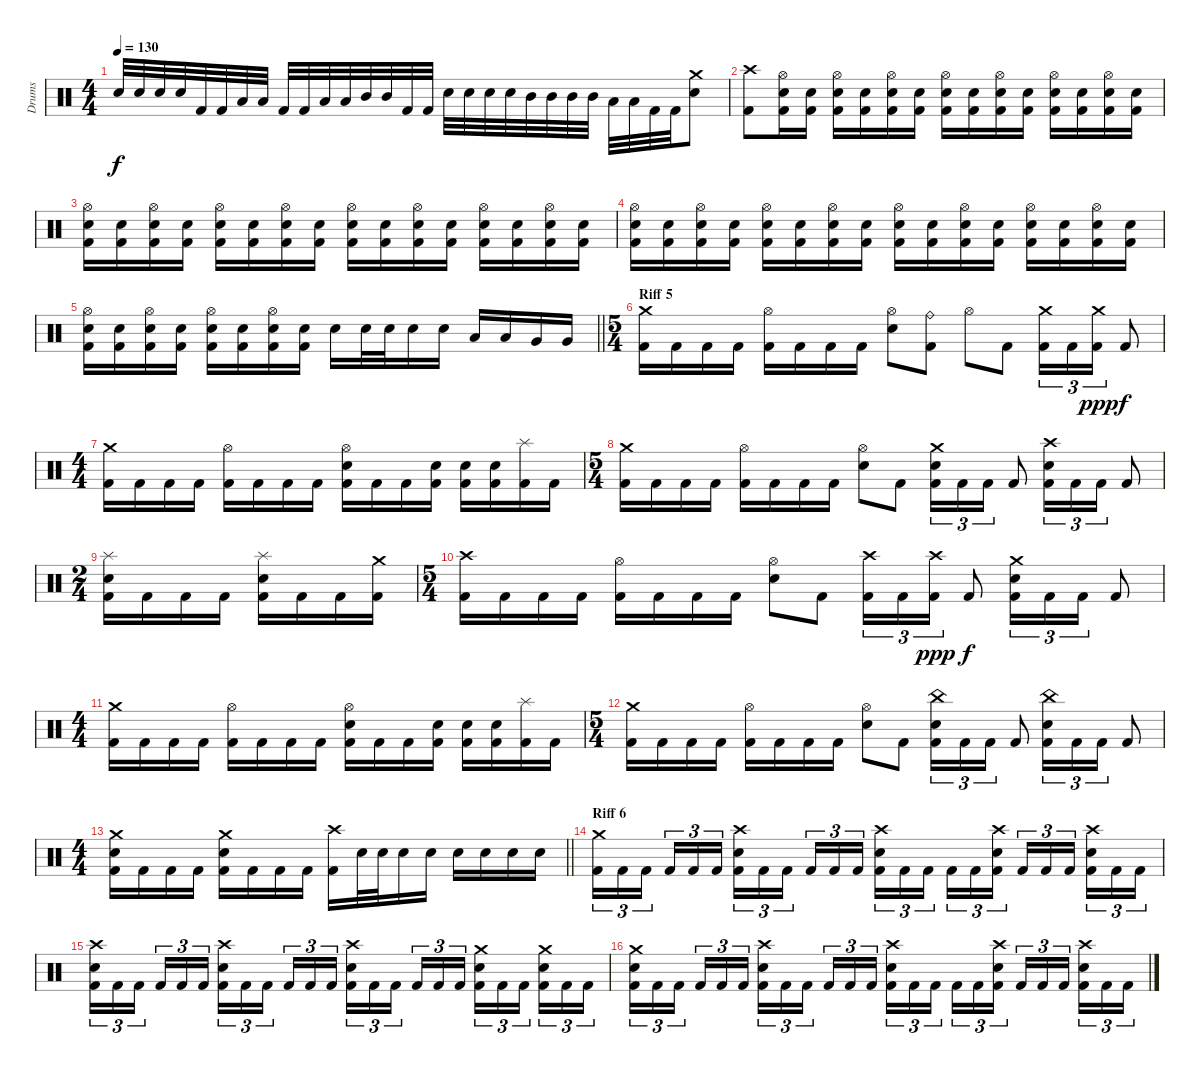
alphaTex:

\track ("Drums" "Drums") {instrument percussion}
\staff {score}
\articulation defaults
\ts (4 4)
\tempo 130
\clef neutral
\ks c "Electric Snare (hit)".32{dy f} "Electric Snare (hit)".32 "Electric Snare (hit)".32 "Electric Snare (hit)".32 "Kick (hit) 2".32 "Kick (hit) 2".32 "Low Tom (hit)".32 "Low Tom (hit)".32 "Kick (hit) 2".32 "Kick (hit) 2".32 "Low Tom (hit)".32 "Low Tom (hit)".32 "Mid Tom (hit)".32 "Mid Tom (hit)".32 "Kick (hit) 2".32 "Kick (hit) 2".32 "Electric Snare (hit)".32 "Electric Snare (hit)".32 "Electric Snare (hit)".32 "Electric Snare (hit)".32 "Mid Tom (hit)".32 "Mid Tom (hit)".32 "Mid Tom (hit)".32 "Mid Tom (hit)".32 "Low Tom (hit)".32 "Low Tom (hit)".32 "Kick (hit) 2".32 "Kick (hit) 2".32
("Electric Snare (hit)" "Crash medium (hit)").8 |
("Kick (hit) 2" "Crash high (hit)").8 ("Kick (hit) 2" "Electric Snare (hit)" "Hi-Hat (open)").16 ("Kick (hit) 2" "Electric Snare (hit)").16 ("Kick (hit) 2" "Electric Snare (hit)" "Hi-Hat (open)").16 ("Kick (hit) 2" "Electric Snare (hit)").16 ("Kick (hit) 2" "Electric Snare (hit)" "Hi-Hat (open)").16 ("Kick (hit) 2" "Electric Snare (hit)").16 ("Kick (hit) 2" "Electric Snare (hit)" "Hi-Hat (open)").16 ("Kick (hit) 2" "Electric Snare (hit)").16 ("Kick (hit) 2" "Electric Snare (hit)" "Hi-Hat (open)").16 ("Kick (hit) 2" "Electric Snare (hit)").16 ("Kick (hit) 2" "Electric Snare (hit)" "Hi-Hat (open)").16 ("Kick (hit) 2" "Electric Snare (hit)").16 ("Kick (hit) 2" "Electric Snare (hit)" "Hi-Hat (open)").16 ("Kick (hit) 2" "Electric Snare (hit)").16 |
("Kick (hit) 2" "Electric Snare (hit)" "Hi-Hat (open)").16 ("Kick (hit) 2" "Electric Snare (hit)").16 ("Kick (hit) 2" "Electric Snare (hit)" "Hi-Hat (open)").16 ("Kick (hit) 2" "Electric Snare (hit)").16 ("Kick (hit) 2" "Electric Snare (hit)" "Hi-Hat (open)").16 ("Kick (hit) 2" "Electric Snare (hit)").16 ("Kick (hit) 2" "Electric Snare (hit)" "Hi-Hat (open)").16 ("Kick (hit) 2" "Electric Snare (hit)").16 ("Kick (hit) 2" "Electric Snare (hit)" "Hi-Hat (open)").16 ("Kick (hit) 2" "Electric Snare (hit)").16 ("Kick (hit) 2" "Electric Snare (hit)" "Hi-Hat (open)").16 ("Kick (hit) 2" "Electric Snare (hit)").16 ("Kick (hit) 2" "Electric Snare (hit)" "Hi-Hat (open)").16 ("Kick (hit) 2" "Electric Snare (hit)").16 ("Kick (hit) 2" "Electric Snare (hit)" "Hi-Hat (open)").16 ("Kick (hit) 2" "Electric Snare (hit)").16 |
("Kick (hit) 2" "Electric Snare (hit)" "Hi-Hat (open)").16 ("Kick (hit) 2" "Electric Snare (hit)").16 ("Kick (hit) 2" "Electric Snare (hit)" "Hi-Hat (open)").16 ("Kick (hit) 2" "Electric Snare (hit)").16 ("Kick (hit) 2" "Electric Snare (hit)" "Hi-Hat (open)").16 ("Kick (hit) 2" "Electric Snare (hit)").16 ("Kick (hit) 2" "Electric Snare (hit)" "Hi-Hat (open)").16 ("Kick (hit) 2" "Electric Snare (hit)").16 ("Kick (hit) 2" "Electric Snare (hit)" "Hi-Hat (open)").16 ("Kick (hit) 2" "Electric Snare (hit)").16 ("Kick (hit) 2" "Electric Snare (hit)" "Hi-Hat (open)").16 ("Kick (hit) 2" "Electric Snare (hit)").16 ("Kick (hit) 2" "Electric Snare (hit)" "Hi-Hat (open)").16 ("Kick (hit) 2" "Electric Snare (hit)").16 ("Kick (hit) 2" "Electric Snare (hit)" "Hi-Hat (open)").16 ("Kick (hit) 2" "Electric Snare (hit)").16 |
\barLineRight lightlight
("Kick (hit) 2" "Electric Snare (hit)" "Hi-Hat (open)").16 ("Kick (hit) 2" "Electric Snare (hit)").16 ("Kick (hit) 2" "Electric Snare (hit)" "Hi-Hat (open)").16 ("Kick (hit) 2" "Electric Snare (hit)").16 ("Kick (hit) 2" "Electric Snare (hit)" "Hi-Hat (open)").16 ("Kick (hit) 2" "Electric Snare (hit)").16 ("Kick (hit) 2" "Electric Snare (hit)" "Hi-Hat (open)").16 ("Kick (hit) 2" "Electric Snare (hit)").16 "Electric Snare (hit)".16 "Electric Snare (hit)".32 "Electric Snare (hit)".32 "Electric Snare (hit)".16 "Electric Snare (hit)".16 "Low Tom (hit)".16 "Low Tom (hit)".16 "Very Low Tom (hit)".16 "Very Low Tom (hit)".16 |
\ts (5 4)
\section ("" "Riff 5")
("Crash medium (hit)" "Kick (hit) 2").16 "Kick (hit) 2".16 "Kick (hit) 2".16 "Kick (hit) 2".16 ("Hi-Hat (open)" "Kick (hit) 2").16 "Kick (hit) 2".16 "Kick (hit) 2".16 "Kick (hit) 2".16 ("Electric Snare (hit)" "Hi-Hat (open)").8 ("Ride (bell)" "Kick (hit) 2").8 "Hi-Hat (open)".8 "Kick (hit) 2".8 ("Kick (hit) 2" "Crash medium (hit)").16{tu (3 2)} "Kick (hit) 2".16{tu (3 2)} ("Kick (hit) 2" "Crash medium (hit)").16{tu (3 2) dy ppp} "Kick (hit) 2".8{dy f} |
\ts (4 4)
("Kick (hit) 2" "Crash medium (hit)").16 "Kick (hit) 2".16 "Kick (hit) 2".16 "Kick (hit) 2".16 ("Kick (hit) 2" "Hi-Hat (open)").16 "Kick (hit) 2".16 "Kick (hit) 2".16 "Kick (hit) 2".16 ("Kick (hit) 2" "Hi-Hat (open)" "Electric Snare (hit)").16 "Kick (hit) 2".16 "Kick (hit) 2".16 ("Kick (hit) 2" "Electric Snare (hit)").16 ("Kick (hit) 2" "Electric Snare (hit)").16 ("Kick (hit) 2" "Electric Snare (hit)").16 ("Kick (hit) 2" "Splash (hit)").16 "Kick (hit) 2".16 |
\ts (5 4)
("Crash medium (hit)" "Kick (hit) 2").16 "Kick (hit) 2".16 "Kick (hit) 2".16 "Kick (hit) 2".16 ("Hi-Hat (open)" "Kick (hit) 2").16 "Kick (hit) 2".16 "Kick (hit) 2".16 "Kick (hit) 2".16 ("Electric Snare (hit)" "Hi-Hat (open)").8 "Kick (hit) 2".8 ("Kick (hit) 2" "Crash medium (hit)" "Electric Snare (hit)").16{tu (3 2)} "Kick (hit) 2".16{tu (3 2)} "Kick (hit) 2".16{tu (3 2)} "Kick (hit) 2".8 ("Kick (hit) 2" "Crash high (hit)" "Electric Snare (hit)").16{tu (3 2)} "Kick (hit) 2".16{tu (3 2)} "Kick (hit) 2".16{tu (3 2)} "Kick (hit) 2".8 |
\ts (2 4)
("Electric Snare (hit)" "Kick (hit) 2" "Splash (hit)").16 "Kick (hit) 2".16 "Kick (hit) 2".16 "Kick (hit) 2".16 ("Electric Snare (hit)" "Kick (hit) 2" "Splash (hit)").16 "Kick (hit) 2".16 "Kick (hit) 2".16 ("Crash medium (hit)" "Kick (hit) 2").16 |
\ts (5 4)
("Crash high (hit)" "Kick (hit) 2").16 "Kick (hit) 2".16 "Kick (hit) 2".16 "Kick (hit) 2".16 ("Hi-Hat (open)" "Kick (hit) 2").16 "Kick (hit) 2".16 "Kick (hit) 2".16 "Kick (hit) 2".16 ("Electric Snare (hit)" "Hi-Hat (open)").8 "Kick (hit) 2".8 ("Kick (hit) 2" "Crash high (hit)").16{tu (3 2)} "Kick (hit) 2".16{tu (3 2)} ("Kick (hit) 2" "Crash high (hit)").16{tu (3 2) dy ppp} "Kick (hit) 2".8{dy f} ("Kick (hit) 2" "Crash medium (hit)" "Electric Snare (hit)").16{tu (3 2)} "Kick (hit) 2".16{tu (3 2)} "Kick (hit) 2".16{tu (3 2)} "Kick (hit) 2".8 |
\ts (4 4)
("Kick (hit) 2" "Crash medium (hit)").16 "Kick (hit) 2".16 "Kick (hit) 2".16 "Kick (hit) 2".16 ("Kick (hit) 2" "Hi-Hat (open)").16 "Kick (hit) 2".16 "Kick (hit) 2".16 "Kick (hit) 2".16 ("Kick (hit) 2" "Hi-Hat (open)" "Electric Snare (hit)").16 "Kick (hit) 2".16 "Kick (hit) 2".16 ("Kick (hit) 2" "Electric Snare (hit)").16 ("Kick (hit) 2" "Electric Snare (hit)").16 ("Kick (hit) 2" "Electric Snare (hit)").16 ("Kick (hit) 2" "Splash (hit)").16 "Kick (hit) 2".16 |
\ts (5 4)
("Crash medium (hit)" "Kick (hit) 2").16 "Kick (hit) 2".16 "Kick (hit) 2".16 "Kick (hit) 2".16 ("Hi-Hat (open)" "Kick (hit) 2").16 "Kick (hit) 2".16 "Kick (hit) 2".16 "Kick (hit) 2".16 ("Electric Snare (hit)" "Hi-Hat (open)").8 "Kick (hit) 2".8 ("Kick (hit) 2" "China (hit)" "Electric Snare (hit)").16{tu (3 2)} "Kick (hit) 2".16{tu (3 2)} "Kick (hit) 2".16{tu (3 2)} "Kick (hit) 2".8 ("Kick (hit) 2" "China (hit)" "Electric Snare (hit)").16{tu (3 2)} "Kick (hit) 2".16{tu (3 2)} "Kick (hit) 2".16{tu (3 2)} "Kick (hit) 2".8 |
\ts (4 4)
\barLineRight lightlight
("Electric Snare (hit)" "Kick (hit) 2" "Crash medium (hit)").16 "Kick (hit) 2".16 "Kick (hit) 2".16 "Kick (hit) 2".16 ("Electric Snare (hit)" "Kick (hit) 2" "Crash medium (hit)").16 "Kick (hit) 2".16 "Kick (hit) 2".16 "Kick (hit) 2".16 ("Crash high (hit)" "Kick (hit) 2").16 "Electric Snare (hit)".32 "Electric Snare (hit)".32 "Electric Snare (hit)".16 "Electric Snare (hit)".16 "Electric Snare (hit)".16 "Electric Snare (hit)".16 "Electric Snare (hit)".16 "Electric Snare (hit)".16 |
\section ("" "Riff 6")
("Crash medium (hit)" "Kick (hit) 2").16{tu (3 2)} "Kick (hit) 2".16{tu (3 2)} "Kick (hit) 2".16{tu (3 2) beam splitsecondary} "Kick (hit) 2".16{tu (3 2)} "Kick (hit) 2".16{tu (3 2)} "Kick (hit) 2".16{tu (3 2)} ("Electric Snare (hit)" "Crash high (hit)" "Kick (hit) 2").16{tu (3 2)} "Kick (hit) 2".16{tu (3 2)} "Kick (hit) 2".16{tu (3 2) beam splitsecondary} "Kick (hit) 2".16{tu (3 2)} "Kick (hit) 2".16{tu (3 2)} "Kick (hit) 2".16{tu (3 2)} ("Crash high (hit)" "Electric Snare (hit)" "Kick (hit) 2").16{tu (3 2)} "Kick (hit) 2".16{tu (3 2)} "Kick (hit) 2".16{tu (3 2) beam splitsecondary} "Kick (hit) 2".16{tu (3 2)} "Kick (hit) 2".16{tu (3 2)} ("Electric Snare (hit)" "Crash high (hit)" "Kick (hit) 2").16{tu (3 2)} "Kick (hit) 2".16{tu (3 2)} "Kick (hit) 2".16{tu (3 2)} "Kick (hit) 2".16{tu (3 2) beam splitsecondary} ("Electric Snare (hit)" "Crash high (hit)" "Kick (hit) 2").16{tu (3 2)} "Kick (hit) 2".16{tu (3 2)} "Kick (hit) 2".16{tu (3 2)} |
("Electric Snare (hit)" "Crash high (hit)" "Kick (hit) 2").16{tu (3 2)} "Kick (hit) 2".16{tu (3 2)} "Kick (hit) 2".16{tu (3 2) beam splitsecondary} "Kick (hit) 2".16{tu (3 2)} "Kick (hit) 2".16{tu (3 2)} "Kick (hit) 2".16{tu (3 2)} ("Electric Snare (hit)" "Crash high (hit)" "Kick (hit) 2").16{tu (3 2)} "Kick (hit) 2".16{tu (3 2)} "Kick (hit) 2".16{tu (3 2) beam splitsecondary} "Kick (hit) 2".16{tu (3 2)} "Kick (hit) 2".16{tu (3 2)} "Kick (hit) 2".16{tu (3 2)} ("Electric Snare (hit)" "Crash high (hit)" "Kick (hit) 2").16{tu (3 2)} "Kick (hit) 2".16{tu (3 2)} "Kick (hit) 2".16{tu (3 2) beam splitsecondary} "Kick (hit) 2".16{tu (3 2)} "Kick (hit) 2".16{tu (3 2)} "Kick (hit) 2".16{tu (3 2)} ("Electric Snare (hit)" "Crash medium (hit)" "Kick (hit) 2").16{tu (3 2)} "Kick (hit) 2".16{tu (3 2)} "Kick (hit) 2".16{tu (3 2) beam splitsecondary} ("Crash medium (hit)" "Electric Snare (hit)" "Kick (hit) 2").16{tu (3 2)} "Kick (hit) 2".16{tu (3 2)} "Kick (hit) 2".16{tu (3 2)} |
("Crash medium (hit)" "Electric Snare (hit)" "Kick (hit) 2").16{tu (3 2)} "Kick (hit) 2".16{tu (3 2)} "Kick (hit) 2".16{tu (3 2) beam splitsecondary} "Kick (hit) 2".16{tu (3 2)} "Kick (hit) 2".16{tu (3 2)} "Kick (hit) 2".16{tu (3 2)} ("Electric Snare (hit)" "Crash high (hit)" "Kick (hit) 2").16{tu (3 2)} "Kick (hit) 2".16{tu (3 2)} "Kick (hit) 2".16{tu (3 2) beam splitsecondary} "Kick (hit) 2".16{tu (3 2)} "Kick (hit) 2".16{tu (3 2)} "Kick (hit) 2".16{tu (3 2)} ("Crash high (hit)" "Electric Snare (hit)" "Kick (hit) 2").16{tu (3 2)} "Kick (hit) 2".16{tu (3 2)} "Kick (hit) 2".16{tu (3 2) beam splitsecondary} "Kick (hit) 2".16{tu (3 2)} "Kick (hit) 2".16{tu (3 2)} ("Electric Snare (hit)" "Crash high (hit)" "Kick (hit) 2").16{tu (3 2)} "Kick (hit) 2".16{tu (3 2)} "Kick (hit) 2".16{tu (3 2)} "Kick (hit) 2".16{tu (3 2) beam splitsecondary} ("Electric Snare (hit)" "Crash high (hit)" "Kick (hit) 2").16{tu (3 2)} "Kick (hit) 2".16{tu (3 2)} "Kick (hit) 2".16{tu (3 2)}
